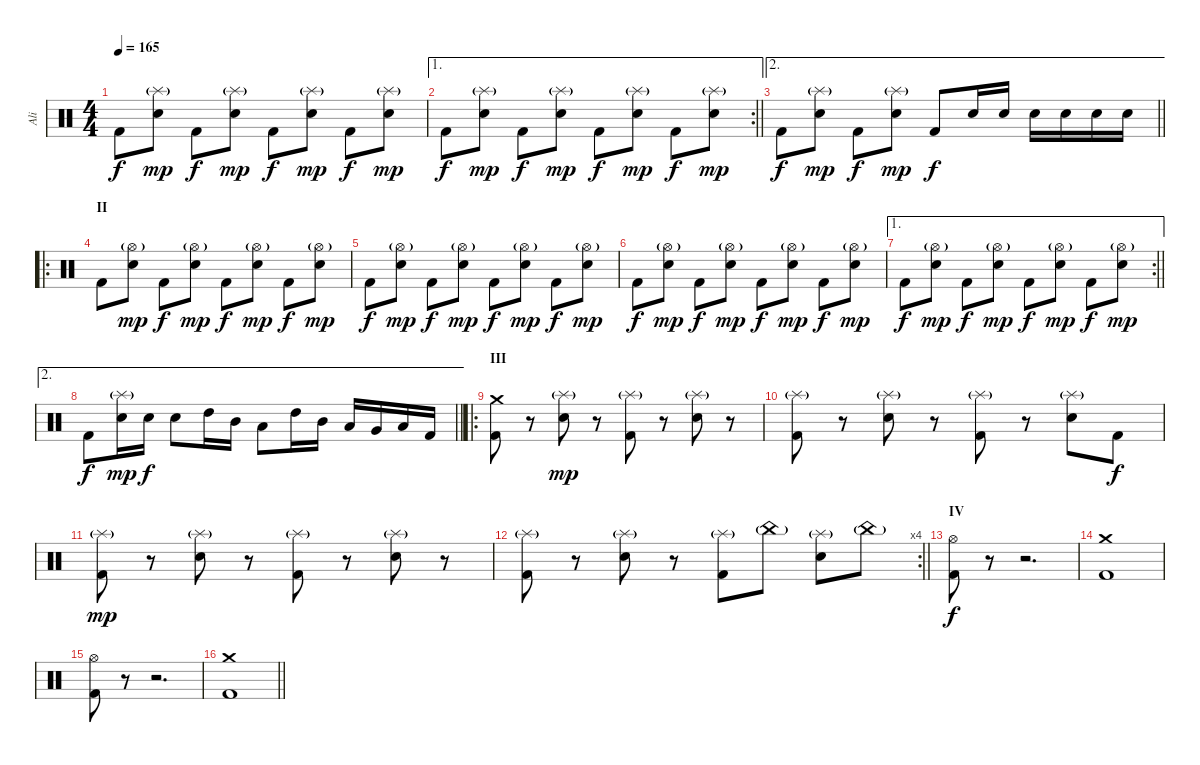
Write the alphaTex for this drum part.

\track ("Ali" "Ali") {instrument percussion}
\staff {score}
\articulation defaults
\ts (4 4)
\tempo 165
\clef neutral
\ks c "Kick (hit) 2".8{dy f}
("Snare (hit) 2" "Splash (hit)"{g}).8{dy mp} "Kick (hit) 2".8{dy f} ("Snare (hit) 2" "Splash (hit)"{g}).8{dy mp} "Kick (hit) 2".8{dy f} ("Snare (hit) 2" "Splash (hit)"{g}).8{dy mp} "Kick (hit) 2".8{dy f} ("Snare (hit) 2" "Splash (hit)"{g}).8{dy mp} |
\ae 1
\rc 2
\barLineRight lightlight "Kick (hit) 2".8{dy f}
("Snare (hit) 2" "Splash (hit)"{g}).8{dy mp} "Kick (hit) 2".8{dy f} ("Snare (hit) 2" "Splash (hit)"{g}).8{dy mp} "Kick (hit) 2".8{dy f} ("Snare (hit) 2" "Splash (hit)"{g}).8{dy mp} "Kick (hit) 2".8{dy f} ("Snare (hit) 2" "Splash (hit)"{g}).8{dy mp} |
\ae 2
\barLineRight lightlight "Kick (hit) 2".8{dy f}
("Snare (hit) 2" "Splash (hit)"{g}).8{dy mp} "Kick (hit) 2".8{dy f} ("Snare (hit) 2" "Splash (hit)"{g}).8{dy mp} "Kick (hit) 2".8{dy f} "Snare (hit) 2".16 "Snare (hit) 2".16 "Snare (hit) 2".16 "Snare (hit) 2".16 "Snare (hit) 2".16 "Snare (hit) 2".16 |
\ro
\section ("" "II")
"Kick (hit) 2".8 ("Snare (hit) 2" "Hi-Hat (open)"{g}).8{dy mp} "Kick (hit) 2".8{dy f} ("Snare (hit) 2" "Hi-Hat (open)"{g}).8{dy mp} "Kick (hit) 2".8{dy f} ("Snare (hit) 2" "Hi-Hat (open)"{g}).8{dy mp} "Kick (hit) 2".8{dy f} ("Snare (hit) 2" "Hi-Hat (open)"{g}).8{dy mp} |
"Kick (hit) 2".8{dy f} ("Snare (hit) 2" "Hi-Hat (open)"{g}).8{dy mp} "Kick (hit) 2".8{dy f} ("Snare (hit) 2" "Hi-Hat (open)"{g}).8{dy mp} "Kick (hit) 2".8{dy f} ("Snare (hit) 2" "Hi-Hat (open)"{g}).8{dy mp} "Kick (hit) 2".8{dy f} ("Snare (hit) 2" "Hi-Hat (open)"{g}).8{dy mp} |
"Kick (hit) 2".8{dy f} ("Snare (hit) 2" "Hi-Hat (open)"{g}).8{dy mp} "Kick (hit) 2".8{dy f} ("Snare (hit) 2" "Hi-Hat (open)"{g}).8{dy mp} "Kick (hit) 2".8{dy f} ("Snare (hit) 2" "Hi-Hat (open)"{g}).8{dy mp} "Kick (hit) 2".8{dy f} ("Snare (hit) 2" "Hi-Hat (open)"{g}).8{dy mp} |
\ae 1
\rc 2
\barLineRight lightlight "Kick (hit) 2".8{dy f}
("Snare (hit) 2" "Hi-Hat (open)"{g}).8{dy mp} "Kick (hit) 2".8{dy f} ("Snare (hit) 2" "Hi-Hat (open)"{g}).8{dy mp} "Kick (hit) 2".8{dy f} ("Snare (hit) 2" "Hi-Hat (open)"{g}).8{dy mp} "Kick (hit) 2".8{dy f} ("Snare (hit) 2" "Hi-Hat (open)"{g}).8{dy mp} |
\ae 2
\barLineRight lightlight "Kick (hit) 2".8{dy f}
("Snare (hit) 2" "Splash (hit)"{g}).16{dy mp} "Snare (hit) 2".16{dy f} "Snare (hit) 2".8 "High Tom (hit)".16 "Mid Tom (hit)".16 "Low Tom (hit)".8 "High Tom (hit)".16 "Mid Tom (hit)".16 "Low Tom (hit)".16 "Very Low Tom (hit)".16 "Low Floor Tom (hit)".16 "Kick (hit) 2".16 |
\ro
\section ("" "III")
("Kick (hit) 2" "Crash medium (hit)").8 r.8 ("Electric Snare (hit)" "Splash (hit)"{g}).8{dy mp} r.8 ("Kick (hit) 2" "Splash (hit)"{g}).8 r.8 ("Electric Snare (hit)" "Splash (hit)"{g}).8 r.8 |
("Kick (hit) 2" "Splash (hit)"{g}).8 r.8 ("Electric Snare (hit)" "Splash (hit)"{g}).8 r.8 ("Kick (hit) 2" "Splash (hit)"{g}).8 r.8 ("Electric Snare (hit)" "Splash (hit)"{g}).8 "Kick (hit) 2".8{dy f} |
("Kick (hit) 2" "Splash (hit)"{g}).8{dy mp} r.8 ("Electric Snare (hit)" "Splash (hit)"{g}).8 r.8 ("Kick (hit) 2" "Splash (hit)"{g}).8 r.8 ("Electric Snare (hit)" "Splash (hit)"{g}).8 r.8 |
\rc 4
\barLineRight lightlight
("Kick (hit) 2" "Splash (hit)"{g}).8 r.8 ("Electric Snare (hit)" "Splash (hit)"{g}).8 r.8 ("Kick (hit) 2" "Splash (hit)"{g}).8 "China (hit)"{g}.8 ("Electric Snare (hit)" "Splash (hit)"{g}).8 "China (hit)"{g}.8 |
\section ("" "IV")
("Kick (hit) 2" "Hi-Hat (open)").8{dy f} r.8 r.2{d} |
("Kick (hit) 2" "Crash medium (hit)").1 |
("Kick (hit) 2" "Hi-Hat (open)").8 r.8 r.2{d} |
\barLineRight lightlight
("Kick (hit) 2" "Crash medium (hit)").1
